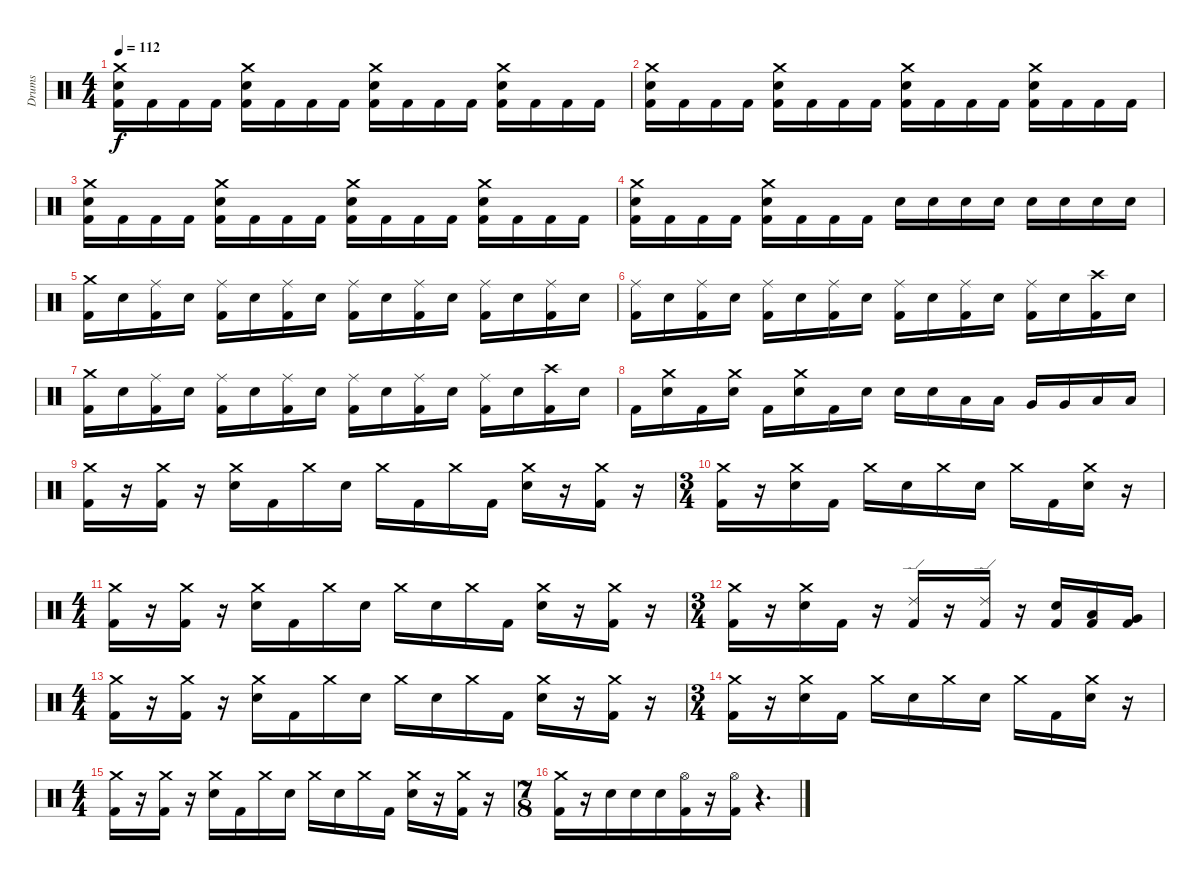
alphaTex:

\track ("Drums" "Drums") {instrument percussion}
\staff {score}
\articulation defaults
\ts (4 4)
\section ("" "")
\tempo 112
\clef neutral
\ks c
("Crash medium (hit)" "Electric Snare (hit)" "Kick (hit) 2").16{dy f} "Kick (hit) 2".16 "Kick (hit) 2".16 "Kick (hit) 2".16 ("Crash medium (hit)" "Electric Snare (hit)" "Kick (hit) 2").16 "Kick (hit) 2".16 "Kick (hit) 2".16 "Kick (hit) 2".16 ("Crash medium (hit)" "Electric Snare (hit)" "Kick (hit) 2").16 "Kick (hit) 2".16 "Kick (hit) 2".16 "Kick (hit) 2".16 ("Crash medium (hit)" "Electric Snare (hit)" "Kick (hit) 2").16 "Kick (hit) 2".16 "Kick (hit) 2".16 "Kick (hit) 2".16 |
("Crash medium (hit)" "Electric Snare (hit)" "Kick (hit) 2").16 "Kick (hit) 2".16 "Kick (hit) 2".16 "Kick (hit) 2".16 ("Crash medium (hit)" "Electric Snare (hit)" "Kick (hit) 2").16 "Kick (hit) 2".16 "Kick (hit) 2".16 "Kick (hit) 2".16 ("Crash medium (hit)" "Electric Snare (hit)" "Kick (hit) 2").16 "Kick (hit) 2".16 "Kick (hit) 2".16 "Kick (hit) 2".16 ("Crash medium (hit)" "Electric Snare (hit)" "Kick (hit) 2").16 "Kick (hit) 2".16 "Kick (hit) 2".16 "Kick (hit) 2".16 |
("Crash medium (hit)" "Electric Snare (hit)" "Kick (hit) 2").16 "Kick (hit) 2".16 "Kick (hit) 2".16 "Kick (hit) 2".16 ("Crash medium (hit)" "Electric Snare (hit)" "Kick (hit) 2").16 "Kick (hit) 2".16 "Kick (hit) 2".16 "Kick (hit) 2".16 ("Crash medium (hit)" "Electric Snare (hit)" "Kick (hit) 2").16 "Kick (hit) 2".16 "Kick (hit) 2".16 "Kick (hit) 2".16 ("Crash medium (hit)" "Electric Snare (hit)" "Kick (hit) 2").16 "Kick (hit) 2".16 "Kick (hit) 2".16 "Kick (hit) 2".16 |
("Crash medium (hit)" "Electric Snare (hit)" "Kick (hit) 2").16 "Kick (hit) 2".16 "Kick (hit) 2".16 "Kick (hit) 2".16 ("Crash medium (hit)" "Electric Snare (hit)" "Kick (hit) 2").16 "Kick (hit) 2".16 "Kick (hit) 2".16 "Kick (hit) 2".16 "Electric Snare (hit)".16 "Electric Snare (hit)".16 "Electric Snare (hit)".16 "Electric Snare (hit)".16 "Electric Snare (hit)".16 "Electric Snare (hit)".16 "Electric Snare (hit)".16 "Electric Snare (hit)".16 |
\section ("" "")
("Crash medium (hit)" "Kick (hit) 2").16 "Electric Snare (hit)".16 ("Ride (middle)" "Kick (hit) 2").16 "Electric Snare (hit)".16 ("Ride (middle)" "Kick (hit) 2").16 "Electric Snare (hit)".16 ("Ride (middle)" "Kick (hit) 2").16 "Electric Snare (hit)".16 ("Ride (middle)" "Kick (hit) 2").16 "Electric Snare (hit)".16 ("Ride (middle)" "Kick (hit) 2").16 "Electric Snare (hit)".16 ("Ride (middle)" "Kick (hit) 2").16 "Electric Snare (hit)".16 ("Ride (middle)" "Kick (hit) 2").16 "Electric Snare (hit)".16 |
("Ride (middle)" "Kick (hit) 2").16 "Electric Snare (hit)".16 ("Ride (middle)" "Kick (hit) 2").16 "Electric Snare (hit)".16 ("Ride (middle)" "Kick (hit) 2").16 "Electric Snare (hit)".16 ("Ride (middle)" "Kick (hit) 2").16 "Electric Snare (hit)".16 ("Ride (middle)" "Kick (hit) 2").16 "Electric Snare (hit)".16 ("Ride (middle)" "Kick (hit) 2").16 "Electric Snare (hit)".16 ("Ride (middle)" "Kick (hit) 2").16 "Electric Snare (hit)".16 ("Crash high (hit)" "Kick (hit) 2").16 "Electric Snare (hit)".16 |
("Crash medium (hit)" "Kick (hit) 2").16 "Electric Snare (hit)".16 ("Ride (middle)" "Kick (hit) 2").16 "Electric Snare (hit)".16 ("Ride (middle)" "Kick (hit) 2").16 "Electric Snare (hit)".16 ("Ride (middle)" "Kick (hit) 2").16 "Electric Snare (hit)".16 ("Ride (middle)" "Kick (hit) 2").16 "Electric Snare (hit)".16 ("Ride (middle)" "Kick (hit) 2").16 "Electric Snare (hit)".16 ("Ride (middle)" "Kick (hit) 2").16 "Electric Snare (hit)".16 ("Crash high (hit)" "Kick (hit) 2").16 "Electric Snare (hit)".16 |
"Kick (hit) 2".16 ("Crash medium (hit)" "Electric Snare (hit)").16 "Kick (hit) 2".16 ("Crash medium (hit)" "Electric Snare (hit)").16 "Kick (hit) 2".16 ("Crash medium (hit)" "Electric Snare (hit)").16 "Kick (hit) 2".16 "Electric Snare (hit)".16 "Electric Snare (hit)".16 "Electric Snare (hit)".16 "Low Tom (hit)".16 "Low Tom (hit)".16 "Very Low Tom (hit)".16 "Very Low Tom (hit)".16 "Low Floor Tom (hit)".16 "Low Floor Tom (hit)".16 |
\section ("" "")
("Crash medium (hit)" "Kick (hit) 2").16 r.16 ("Crash medium (hit)" "Kick (hit) 2").16 r.16 ("Crash medium (hit)" "Electric Snare (hit)").16 "Kick (hit) 2".16 "Crash medium (hit)".16 "Electric Snare (hit)".16 "Crash medium (hit)".16 "Kick (hit) 2".16 "Crash medium (hit)".16 "Kick (hit) 2".16 ("Crash medium (hit)" "Electric Snare (hit)").16 r.16 ("Crash medium (hit)" "Kick (hit) 2").16 r.16 |
\ts (3 4)
("Crash medium (hit)" "Kick (hit) 2").16 r.16 ("Crash medium (hit)" "Electric Snare (hit)").16 "Kick (hit) 2".16 "Crash medium (hit)".16 "Electric Snare (hit)".16 "Crash medium (hit)".16 "Electric Snare (hit)".16 "Crash medium (hit)".16 "Kick (hit) 2".16 ("Crash medium (hit)" "Electric Snare (hit)").16 r.16 |
\ts (4 4)
("Crash medium (hit)" "Kick (hit) 2").16 r.16 ("Crash medium (hit)" "Kick (hit) 2").16 r.16 ("Crash medium (hit)" "Electric Snare (hit)").16 "Kick (hit) 2".16 "Crash medium (hit)".16 "Electric Snare (hit)".16 "Crash medium (hit)".16 "Electric Snare (hit)".16 "Crash medium (hit)".16 "Kick (hit) 2".16 ("Crash medium (hit)" "Electric Snare (hit)").16 r.16 ("Crash medium (hit)" "Kick (hit) 2").16 r.16 |
\ts (3 4)
("Crash medium (hit)" "Kick (hit) 2").16 r.16 ("Crash medium (hit)" "Electric Snare (hit)").16 "Kick (hit) 2".16 r.16 ("Ride (edge) 2" "Kick (hit) 2").16 r.16 ("Ride (edge) 2" "Kick (hit) 2").16 r.16 ("Electric Snare (hit)" "Kick (hit) 2").16 ("Low Tom (hit)" "Kick (hit) 2").16 ("Very Low Tom (hit)" "Kick (hit) 2").16 |
\ts (4 4)
("Crash medium (hit)" "Kick (hit) 2").16 r.16 ("Crash medium (hit)" "Kick (hit) 2").16 r.16 ("Crash medium (hit)" "Electric Snare (hit)").16 "Kick (hit) 2".16 "Crash medium (hit)".16 "Electric Snare (hit)".16 "Crash medium (hit)".16 "Electric Snare (hit)".16 "Crash medium (hit)".16 "Kick (hit) 2".16 ("Crash medium (hit)" "Electric Snare (hit)").16 r.16 ("Crash medium (hit)" "Kick (hit) 2").16 r.16 |
\ts (3 4)
("Crash medium (hit)" "Kick (hit) 2").16 r.16 ("Crash medium (hit)" "Electric Snare (hit)").16 "Kick (hit) 2".16 "Crash medium (hit)".16 "Electric Snare (hit)".16 "Crash medium (hit)".16 "Electric Snare (hit)".16 "Crash medium (hit)".16 "Kick (hit) 2".16 ("Crash medium (hit)" "Electric Snare (hit)").16 r.16 |
\ts (4 4)
("Crash medium (hit)" "Kick (hit) 2").16 r.16 ("Crash medium (hit)" "Kick (hit) 2").16 r.16 ("Crash medium (hit)" "Electric Snare (hit)").16 "Kick (hit) 2".16 "Crash medium (hit)".16 "Electric Snare (hit)".16 "Crash medium (hit)".16 "Electric Snare (hit)".16 "Crash medium (hit)".16 "Kick (hit) 2".16 ("Crash medium (hit)" "Electric Snare (hit)").16 r.16 ("Crash medium (hit)" "Kick (hit) 2").16 r.16 |
\ts (7 8)
("Crash medium (hit)" "Kick (hit) 2").16 r.16 "Electric Snare (hit)".16 "Electric Snare (hit)".16 "Electric Snare (hit)".16 ("Hi-Hat (open)" "Kick (hit) 2").16 r.16 ("Hi-Hat (open)" "Kick (hit) 2").16 r.4{d}
